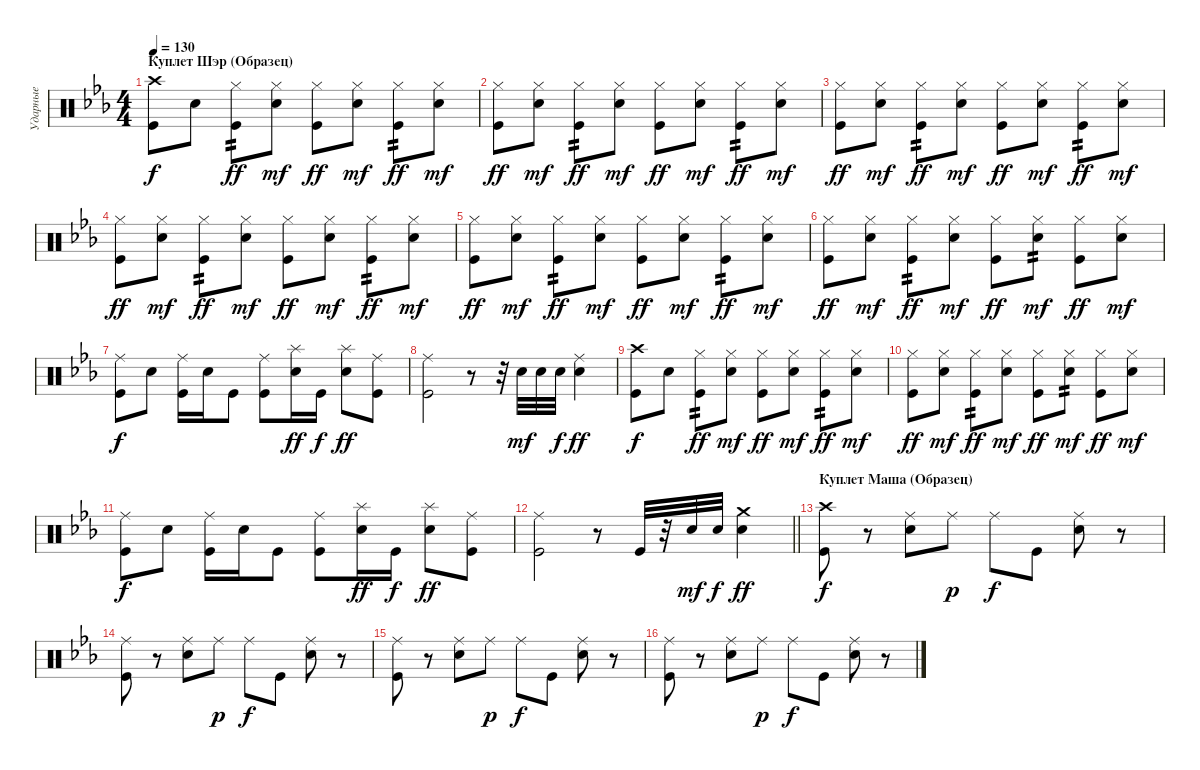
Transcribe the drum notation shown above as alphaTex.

\track ("Ударные" "Ударные") {instrument percussion}
\staff {score}
\articulation defaults
\ts (4 4)
\section ("" "Куплет Шэр (Образец)")
\tempo 130
\clef neutral
\ks cminor
("Crash high (hit)" "Kick (hit)").8{dy f} "Snare (hit) 2".8 ("Hi-Hat (closed)" "Kick (hit)").8{tp 2 dy ff} ("Hi-Hat (closed)" "Snare (hit) 2").8{dy mf} ("Hi-Hat (closed)" "Kick (hit)").8{dy ff} ("Hi-Hat (closed)" "Snare (hit) 2").8{dy mf} ("Hi-Hat (closed)" "Kick (hit)").8{tp 2 dy ff} ("Hi-Hat (closed)" "Snare (hit) 2").8{dy mf} |
("Hi-Hat (closed)" "Kick (hit)").8{dy ff} ("Hi-Hat (closed)" "Snare (hit) 2").8{dy mf} ("Hi-Hat (closed)" "Kick (hit)").8{tp 2 dy ff} ("Hi-Hat (closed)" "Snare (hit) 2").8{dy mf} ("Hi-Hat (closed)" "Kick (hit)").8{dy ff} ("Hi-Hat (closed)" "Snare (hit) 2").8{dy mf} ("Hi-Hat (closed)" "Kick (hit)").8{tp 2 dy ff} ("Hi-Hat (closed)" "Snare (hit) 2").8{dy mf} |
("Hi-Hat (closed)" "Kick (hit)").8{dy ff} ("Hi-Hat (closed)" "Snare (hit) 2").8{dy mf} ("Hi-Hat (closed)" "Kick (hit)").8{tp 2 dy ff} ("Hi-Hat (closed)" "Snare (hit) 2").8{dy mf} ("Hi-Hat (closed)" "Kick (hit)").8{dy ff} ("Hi-Hat (closed)" "Snare (hit) 2").8{dy mf} ("Hi-Hat (closed)" "Kick (hit)").8{tp 2 dy ff} ("Hi-Hat (closed)" "Snare (hit) 2").8{dy mf} |
("Hi-Hat (closed)" "Kick (hit)").8{dy ff} ("Hi-Hat (closed)" "Snare (hit) 2").8{dy mf} ("Hi-Hat (closed)" "Kick (hit)").8{tp 2 dy ff} ("Hi-Hat (closed)" "Snare (hit) 2").8{dy mf} ("Hi-Hat (closed)" "Kick (hit)").8{dy ff} ("Hi-Hat (closed)" "Snare (hit) 2").8{dy mf} ("Hi-Hat (closed)" "Kick (hit)").8{tp 2 dy ff} ("Hi-Hat (closed)" "Snare (hit) 2").8{dy mf} |
("Hi-Hat (closed)" "Kick (hit)").8{dy ff} ("Hi-Hat (closed)" "Snare (hit) 2").8{dy mf} ("Hi-Hat (closed)" "Kick (hit)").8{tp 2 dy ff} ("Hi-Hat (closed)" "Snare (hit) 2").8{dy mf} ("Hi-Hat (closed)" "Kick (hit)").8{dy ff} ("Hi-Hat (closed)" "Snare (hit) 2").8{dy mf} ("Hi-Hat (closed)" "Kick (hit)").8{tp 2 dy ff} ("Hi-Hat (closed)" "Snare (hit) 2").8{dy mf} |
("Hi-Hat (closed)" "Kick (hit)").8{dy ff} ("Hi-Hat (closed)" "Snare (hit) 2").8{dy mf} ("Hi-Hat (closed)" "Kick (hit)").8{tp 2 dy ff} ("Hi-Hat (closed)" "Snare (hit) 2").8{dy mf} ("Hi-Hat (closed)" "Kick (hit)").8{dy ff} ("Hi-Hat (closed)" "Snare (hit) 2").8{tp 2 dy mf} ("Hi-Hat (closed)" "Kick (hit)").8{dy ff} ("Hi-Hat (closed)" "Snare (hit) 2").8{dy mf} |
("Ride (middle)" "Kick (hit)").8{dy f} "Snare (hit) 2".8 ("Ride (middle)" "Kick (hit)").16 "Snare (hit) 2".16 "Kick (hit)".8 ("Ride (middle)" "Kick (hit)").8 ("Splash (hit)" "Snare (hit) 2").16{dy ff} "Kick (hit)".16{dy f} ("Splash (hit)" "Snare (hit) 2").8{dy ff} ("Ride (middle)" "Kick (hit)").8 |
("Ride (middle)" "Kick (hit)").2 r.8 r.32 "Snare (hit) 2".32{dy mf} "Snare (hit) 2".32 "Snare (hit) 2".32{dy f} ("Ride (middle)" "Snare (hit) 2").4{dy ff} |
("Crash high (hit)" "Kick (hit)").8{dy f} "Snare (hit) 2".8 ("Hi-Hat (closed)" "Kick (hit)").8{tp 2 dy ff} ("Hi-Hat (closed)" "Snare (hit) 2").8{dy mf} ("Hi-Hat (closed)" "Kick (hit)").8{dy ff} ("Hi-Hat (closed)" "Snare (hit) 2").8{dy mf} ("Hi-Hat (closed)" "Kick (hit)").8{tp 2 dy ff} ("Hi-Hat (closed)" "Snare (hit) 2").8{dy mf} |
("Hi-Hat (closed)" "Kick (hit)").8{dy ff} ("Hi-Hat (closed)" "Snare (hit) 2").8{dy mf} ("Hi-Hat (closed)" "Kick (hit)").8{tp 2 dy ff} ("Hi-Hat (closed)" "Snare (hit) 2").8{dy mf} ("Hi-Hat (closed)" "Kick (hit)").8{dy ff} ("Hi-Hat (closed)" "Snare (hit) 2").8{tp 2 dy mf} ("Hi-Hat (closed)" "Kick (hit)").8{dy ff} ("Hi-Hat (closed)" "Snare (hit) 2").8{dy mf} |
("Ride (middle)" "Kick (hit)").8{dy f} "Snare (hit) 2".8 ("Ride (middle)" "Kick (hit)").16 "Snare (hit) 2".16 "Kick (hit)".8 ("Ride (middle)" "Kick (hit)").8 ("Splash (hit)" "Snare (hit) 2").16{dy ff} "Kick (hit)".16{dy f} ("Splash (hit)" "Snare (hit) 2").8{dy ff} ("Ride (middle)" "Kick (hit)").8 |
\barLineRight lightlight
("Ride (middle)" "Kick (hit)").2 r.8 "Kick (hit)".32 r.32 "Snare (hit) 2".32{dy mf} "Snare (hit) 2".32{dy f} ("Crash medium (hit)" "Snare (hit) 2").4{dy ff} |
\section ("" "Куплет Маша (Образец)")
("Crash high (hit)" "Kick (hit)").8{dy f} r.8 ("Ride (middle)" "Electric Snare (hit)").8 "Ride (middle)".8{dy p} "Ride (middle)".8{dy f} "Kick (hit)".8 ("Ride (middle)" "Electric Snare (hit)").8 r.8 |
("Ride (middle)" "Kick (hit)").8 r.8 ("Ride (middle)" "Electric Snare (hit)").8 "Ride (middle)".8{dy p} "Ride (middle)".8{dy f} "Kick (hit)".8 ("Ride (middle)" "Electric Snare (hit)").8 r.8 |
("Ride (middle)" "Kick (hit)").8 r.8 ("Ride (middle)" "Electric Snare (hit)").8 "Ride (middle)".8{dy p} "Ride (middle)".8{dy f} "Kick (hit)".8 ("Ride (middle)" "Electric Snare (hit)").8 r.8 |
("Ride (middle)" "Kick (hit)").8 r.8 ("Ride (middle)" "Electric Snare (hit)").8 "Ride (middle)".8{dy p} "Ride (middle)".8{dy f} "Kick (hit)".8 ("Ride (middle)" "Electric Snare (hit)").8 r.8
